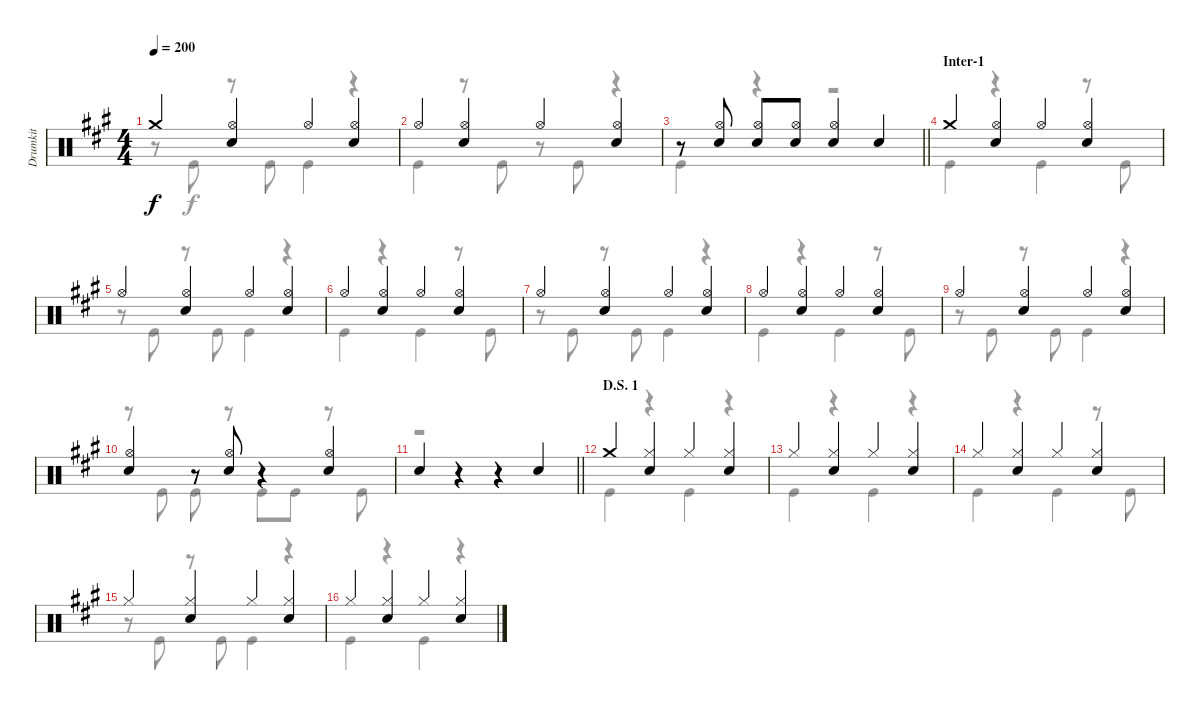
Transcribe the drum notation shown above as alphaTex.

\track ("Drumkit" "Drumkit") {instrument percussion}
\staff {score}
\articulation defaults
\voice
\ts (4 4)
\tempo 200
\clef neutral
\ks a "Crash medium (hit)"{t}.4{dy f}
("Hi-Hat (open)" "Snare (hit) 2").4 "Hi-Hat (open)".4 ("Hi-Hat (open)" "Snare (hit) 2").4 |
"Hi-Hat (open)".4 ("Hi-Hat (open)" "Snare (hit) 2").4 "Hi-Hat (open)".4 ("Hi-Hat (open)" "Snare (hit) 2").4 |
\barLineRight lightlight
r.8 ("Snare (hit) 2" "Hi-Hat (open)").8 ("Snare (hit) 2" "Hi-Hat (open)").8 ("Snare (hit) 2" "Hi-Hat (open)").8 ("Snare (hit) 2" "Hi-Hat (open)").4 "Snare (hit) 2".4 |
\section ("" "Inter-1")
"Crash medium (hit)".4 ("Hi-Hat (open)" "Snare (hit) 2").4 "Hi-Hat (open)".4 ("Hi-Hat (open)" "Snare (hit) 2").4 |
"Hi-Hat (open)".4 ("Hi-Hat (open)" "Snare (hit) 2").4 "Hi-Hat (open)".4 ("Hi-Hat (open)" "Snare (hit) 2").4 |
"Hi-Hat (open)".4 ("Hi-Hat (open)" "Snare (hit) 2").4 "Hi-Hat (open)".4 ("Hi-Hat (open)" "Snare (hit) 2").4 |
"Hi-Hat (open)".4 ("Hi-Hat (open)" "Snare (hit) 2").4 "Hi-Hat (open)".4 ("Hi-Hat (open)" "Snare (hit) 2").4 |
"Hi-Hat (open)".4 ("Hi-Hat (open)" "Snare (hit) 2").4 "Hi-Hat (open)".4 ("Hi-Hat (open)" "Snare (hit) 2").4 |
"Hi-Hat (open)".4 ("Hi-Hat (open)" "Snare (hit) 2").4 "Hi-Hat (open)".4 ("Hi-Hat (open)" "Snare (hit) 2").4 |
("Snare (hit) 2" "Hi-Hat (open)").4 r.8 ("Hi-Hat (open)" "Snare (hit) 2").8 r.4 ("Snare (hit) 2" "Hi-Hat (open)").4 |
\barLineRight lightlight "Snare (hit) 2".4
r.4 r.4 "Snare (hit) 2".4 |
\section ("" "D.S. 1")
"Crash medium (hit)".4 ("Hi-Hat (closed)" "Snare (hit) 2").4 "Hi-Hat (closed)".4 ("Snare (hit) 2" "Hi-Hat (closed)").4 |
"Hi-Hat (closed)".4 ("Hi-Hat (closed)" "Snare (hit) 2").4 "Hi-Hat (closed)".4 ("Hi-Hat (closed)" "Snare (hit) 2").4 |
"Hi-Hat (closed)".4 ("Hi-Hat (closed)" "Snare (hit) 2").4 "Hi-Hat (closed)".4 ("Hi-Hat (closed)" "Snare (hit) 2").4 |
"Hi-Hat (closed)".4 ("Hi-Hat (closed)" "Snare (hit) 2").4 "Hi-Hat (closed)".4 ("Hi-Hat (closed)" "Snare (hit) 2").4 |
"Hi-Hat (closed)".4 ("Hi-Hat (closed)" "Snare (hit) 2").4 "Hi-Hat (closed)".4 ("Hi-Hat (closed)" "Snare (hit) 2").4
\voice
\clef neutral
\ottava regular
\simile none
\ks a
r.8{dy f} "Kick (hit)".8 r.8 "Kick (hit)".8 "Kick (hit)".4 r.4 |
"Kick (hit)".4 r.8 "Kick (hit)".8 r.8 "Kick (hit)".8 r.4 |
\barLineRight lightlight "Kick (hit)".4
r.4 r.2 |
"Kick (hit)".4 r.4 "Kick (hit)".4 r.8 "Kick (hit)".8 |
r.8 "Kick (hit)".8 r.8 "Kick (hit)".8 "Kick (hit)".4 r.4 |
"Kick (hit)".4 r.4 "Kick (hit)".4 r.8 "Kick (hit)".8 |
r.8 "Kick (hit)".8 r.8 "Kick (hit)".8 "Kick (hit)".4 r.4 |
"Kick (hit)".4 r.4 "Kick (hit)".4 r.8 "Kick (hit)".8 |
r.8 "Kick (hit)".8 r.8 "Kick (hit)".8 "Kick (hit)".4 r.4 |
r.8 "Kick (hit)".8 "Kick (hit)".8 r.8 "Kick (hit)".8 "Kick (hit)".8 r.8 "Kick (hit)".8 |
\barLineRight lightlight
r.1 |
"Kick (hit)".4 r.4 "Kick (hit)".4 r.4 |
"Kick (hit)".4 r.4 "Kick (hit)".4 r.4 |
"Kick (hit)".4 r.4 "Kick (hit)".4 r.8 "Kick (hit)".8 |
r.8 "Kick (hit)".8 r.8 "Kick (hit)".8 "Kick (hit)".4 r.4 |
"Kick (hit)".4 r.4 "Kick (hit)".4 r.4
